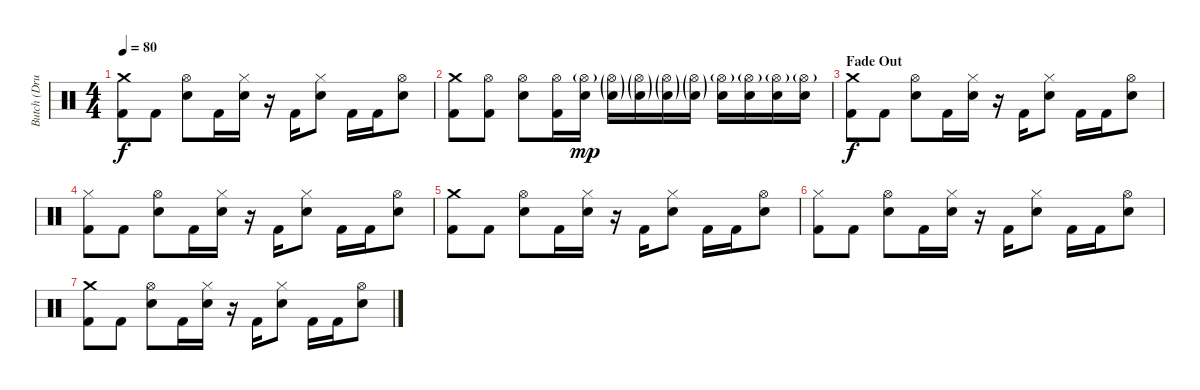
\track ("Butch (Drums)" "Butch (Dru") {instrument percussion}
\staff {score}
\articulation defaults
\ts (4 4)
\tempo 80
\clef neutral
\ks c
("Crash medium (hit)" "Kick (hit) 2").8{dy f} "Kick (hit) 2".8 ("Hi-Hat (open)" "Electric Snare (hit)").8 "Kick (hit) 2".16 ("Hi-Hat (closed)" "Electric Snare (hit)").16 r.16 "Kick (hit) 2".16 ("Hi-Hat (closed)" "Electric Snare (hit)").8 "Kick (hit) 2".16 "Kick (hit) 2".16 ("Hi-Hat (open)" "Electric Snare (hit)").8 |
("Crash medium (hit)" "Kick (hit) 2").8 ("Hi-Hat (open)" "Kick (hit) 2").8 ("Hi-Hat (open)" "Electric Snare (hit)").8 ("Hi-Hat (open)" "Kick (hit) 2").16 ("Hi-Hat (open)"{g} "Electric Snare (hit)").16{dy mp} ("Hi-Hat (open)"{g} "Electric Snare (hit)"{g}).16 ("Hi-Hat (open)"{g} "Electric Snare (hit)"{g}).16 ("Hi-Hat (open)"{g} "Electric Snare (hit)"{g}).16 ("Hi-Hat (open)"{g} "Electric Snare (hit)"{g}).16 ("Hi-Hat (open)"{g} "Electric Snare (hit)").16 ("Hi-Hat (open)"{g} "Electric Snare (hit)").16 ("Hi-Hat (open)"{g} "Electric Snare (hit)").16 ("Hi-Hat (open)"{g} "Electric Snare (hit)").16 |
\section ("" "Fade Out")
("Crash medium (hit)" "Kick (hit) 2").8{dy f} "Kick (hit) 2".8 ("Hi-Hat (open)" "Electric Snare (hit)").8 "Kick (hit) 2".16 ("Hi-Hat (closed)" "Electric Snare (hit)").16 r.16 "Kick (hit) 2".16 ("Hi-Hat (closed)" "Electric Snare (hit)").8 "Kick (hit) 2".16 "Kick (hit) 2".16 ("Hi-Hat (open)" "Electric Snare (hit)").8 |
("Hi-Hat (closed)" "Kick (hit) 2").8 "Kick (hit) 2".8 ("Hi-Hat (open)" "Electric Snare (hit)").8 "Kick (hit) 2".16 ("Hi-Hat (closed)" "Electric Snare (hit)").16 r.16 "Kick (hit) 2".16 ("Hi-Hat (closed)" "Electric Snare (hit)").8 "Kick (hit) 2".16 "Kick (hit) 2".16 ("Hi-Hat (open)" "Electric Snare (hit)").8 |
("Crash medium (hit)" "Kick (hit) 2").8 "Kick (hit) 2".8 ("Hi-Hat (open)" "Electric Snare (hit)").8 "Kick (hit) 2".16 ("Hi-Hat (closed)" "Electric Snare (hit)").16 r.16 "Kick (hit) 2".16 ("Hi-Hat (closed)" "Electric Snare (hit)").8 "Kick (hit) 2".16 "Kick (hit) 2".16 ("Hi-Hat (open)" "Electric Snare (hit)").8 |
("Hi-Hat (closed)" "Kick (hit) 2").8 "Kick (hit) 2".8 ("Hi-Hat (open)" "Electric Snare (hit)").8 "Kick (hit) 2".16 ("Hi-Hat (closed)" "Electric Snare (hit)").16 r.16 "Kick (hit) 2".16 ("Hi-Hat (closed)" "Electric Snare (hit)").8 "Kick (hit) 2".16 "Kick (hit) 2".16 ("Hi-Hat (open)" "Electric Snare (hit)").8 |
("Crash medium (hit)" "Kick (hit) 2").8 "Kick (hit) 2".8 ("Hi-Hat (open)" "Electric Snare (hit)").8 "Kick (hit) 2".16 ("Hi-Hat (closed)" "Electric Snare (hit)").16 r.16 "Kick (hit) 2".16 ("Hi-Hat (closed)" "Electric Snare (hit)").8 "Kick (hit) 2".16 "Kick (hit) 2".16 ("Hi-Hat (open)" "Electric Snare (hit)").8
